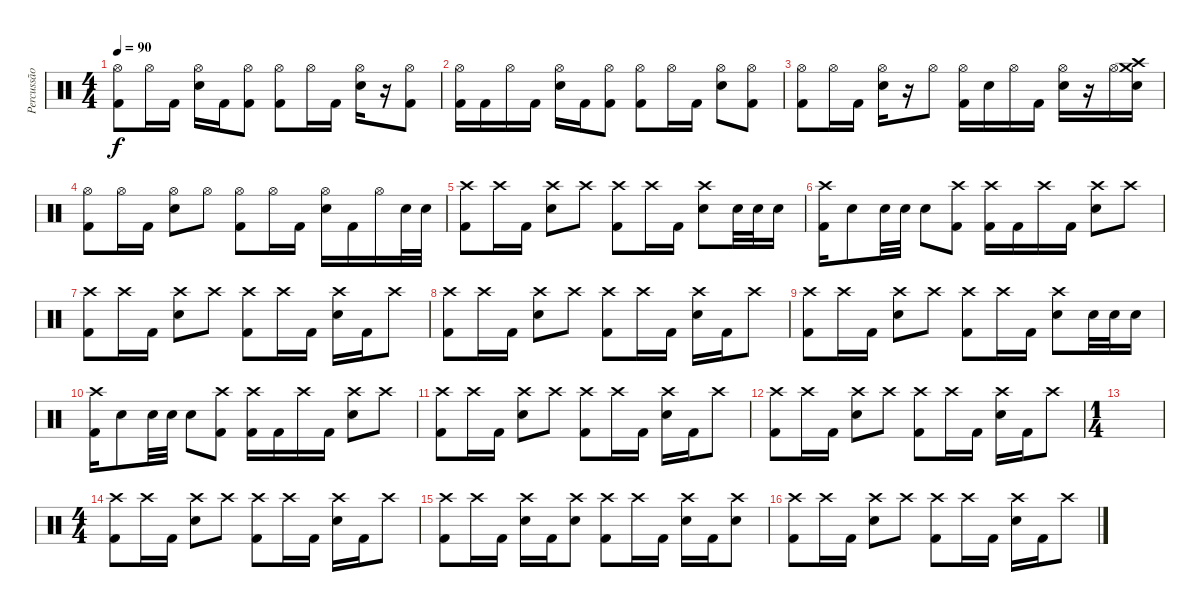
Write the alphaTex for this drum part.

\track ("Percussão" "Percussão") {instrument percussion}
\staff {score}
\articulation defaults
\ts (4 4)
\tempo 90
\clef neutral
\ks c
("Hi-Hat (open)" "Kick (hit) 2").8{dy f} "Hi-Hat (open)".16 "Kick (hit) 2".16 ("Hi-Hat (open)" "Electric Snare (hit)").16 "Kick (hit) 2".16 ("Hi-Hat (open)" "Kick (hit) 2").8 ("Hi-Hat (open)" "Kick (hit) 2").8 "Hi-Hat (open)".16 "Kick (hit) 2".16 ("Hi-Hat (open)" "Electric Snare (hit)").16 r.16 ("Hi-Hat (open)" "Kick (hit) 2").8 |
("Hi-Hat (open)" "Kick (hit) 2").16 "Kick (hit) 2".16 "Hi-Hat (open)".16 "Kick (hit) 2".16 ("Hi-Hat (open)" "Electric Snare (hit)").16 "Kick (hit) 2".16 ("Hi-Hat (open)" "Kick (hit) 2").8 ("Hi-Hat (open)" "Kick (hit) 2").8 "Hi-Hat (open)".16 "Kick (hit) 2".16 ("Hi-Hat (open)" "Electric Snare (hit)").8 ("Hi-Hat (open)" "Kick (hit) 2").8 |
("Hi-Hat (open)" "Kick (hit) 2").8 "Hi-Hat (open)".16 "Kick (hit) 2".16 ("Hi-Hat (open)" "Electric Snare (hit)").16 r.16 "Hi-Hat (open)".8 ("Hi-Hat (open)" "Kick (hit) 2").16 "Electric Snare (hit)".16 "Hi-Hat (open)".16 "Kick (hit) 2".16 ("Hi-Hat (open)" "Electric Snare (hit)").16 r.16 "Hi-Hat (open)".16 ("Crash medium (hit)" "Crash high (hit)" "Electric Snare (hit)").16 |
("Hi-Hat (open)" "Kick (hit) 2").8 "Hi-Hat (open)".16 "Kick (hit) 2".16 ("Hi-Hat (open)" "Electric Snare (hit)").8 "Hi-Hat (open)".8 ("Hi-Hat (open)" "Kick (hit) 2").8 "Hi-Hat (open)".16 "Kick (hit) 2".16 ("Hi-Hat (open)" "Electric Snare (hit)").16 "Kick (hit) 2".16 "Hi-Hat (open)".16 "Electric Snare (hit)".32 "Electric Snare (hit)".32 |
("Crash high (hit)" "Kick (hit) 2").8 "Crash high (hit)".16 "Kick (hit) 2".16 ("Crash high (hit)" "Electric Snare (hit)").8 "Crash high (hit)".8 ("Crash high (hit)" "Kick (hit) 2").8 "Crash high (hit)".16 "Kick (hit) 2".16 ("Crash high (hit)" "Electric Snare (hit)").8 "Electric Snare (hit)".32 "Electric Snare (hit)".32 "Electric Snare (hit)".16 |
("Crash high (hit)" "Kick (hit) 2").16 "Electric Snare (hit)".8 "Electric Snare (hit)".32 "Electric Snare (hit)".32 "Electric Snare (hit)".8 ("Crash high (hit)" "Kick (hit) 2").8 ("Crash high (hit)" "Kick (hit) 2").16 "Kick (hit) 2".16 "Crash high (hit)".16 "Kick (hit) 2".16 ("Crash high (hit)" "Electric Snare (hit)").8 "Crash high (hit)".8 |
("Crash high (hit)" "Kick (hit) 2").8 "Crash high (hit)".16 "Kick (hit) 2".16 ("Crash high (hit)" "Electric Snare (hit)").8 "Crash high (hit)".8 ("Crash high (hit)" "Kick (hit) 2").8 "Crash high (hit)".16 "Kick (hit) 2".16 ("Crash high (hit)" "Electric Snare (hit)").16 "Kick (hit) 2".16 "Crash high (hit)".8 |
("Crash high (hit)" "Kick (hit) 2").8 "Crash high (hit)".16 "Kick (hit) 2".16 ("Crash high (hit)" "Electric Snare (hit)").8 "Crash high (hit)".8 ("Crash high (hit)" "Kick (hit) 2").8 "Crash high (hit)".16 "Kick (hit) 2".16 ("Crash high (hit)" "Electric Snare (hit)").16 "Kick (hit) 2".16 "Crash high (hit)".8 |
("Crash high (hit)" "Kick (hit) 2").8 "Crash high (hit)".16 "Kick (hit) 2".16 ("Crash high (hit)" "Electric Snare (hit)").8 "Crash high (hit)".8 ("Crash high (hit)" "Kick (hit) 2").8 "Crash high (hit)".16 "Kick (hit) 2".16 ("Crash high (hit)" "Electric Snare (hit)").8 "Electric Snare (hit)".32 "Electric Snare (hit)".32 "Electric Snare (hit)".16 |
("Crash high (hit)" "Kick (hit) 2").16 "Electric Snare (hit)".8 "Electric Snare (hit)".32 "Electric Snare (hit)".32 "Electric Snare (hit)".8 ("Crash high (hit)" "Kick (hit) 2").8 ("Crash high (hit)" "Kick (hit) 2").16 "Kick (hit) 2".16 "Crash high (hit)".16 "Kick (hit) 2".16 ("Crash high (hit)" "Electric Snare (hit)").8 "Crash high (hit)".8 |
("Crash high (hit)" "Kick (hit) 2").8 "Crash high (hit)".16 "Kick (hit) 2".16 ("Crash high (hit)" "Electric Snare (hit)").8 "Crash high (hit)".8 ("Crash high (hit)" "Kick (hit) 2").8 "Crash high (hit)".16 "Kick (hit) 2".16 ("Crash high (hit)" "Electric Snare (hit)").16 "Kick (hit) 2".16 "Crash high (hit)".8 |
("Crash high (hit)" "Kick (hit) 2").8 "Crash high (hit)".16 "Kick (hit) 2".16 ("Crash high (hit)" "Electric Snare (hit)").8 "Crash high (hit)".8 ("Crash high (hit)" "Kick (hit) 2").8 "Crash high (hit)".16 "Kick (hit) 2".16 ("Crash high (hit)" "Electric Snare (hit)").16 "Kick (hit) 2".16 "Crash high (hit)".8 |
\ts (1 4)
|
\ts (4 4)
("Crash high (hit)" "Kick (hit) 2").8 "Crash high (hit)".16 "Kick (hit) 2".16 ("Crash high (hit)" "Electric Snare (hit)").8 "Crash high (hit)".8 ("Crash high (hit)" "Kick (hit) 2").8 "Crash high (hit)".16 "Kick (hit) 2".16 ("Crash high (hit)" "Electric Snare (hit)").16 "Kick (hit) 2".16 "Crash high (hit)".8 |
("Crash high (hit)" "Kick (hit) 2").8 "Crash high (hit)".16 "Kick (hit) 2".16 ("Crash high (hit)" "Electric Snare (hit)").16 "Kick (hit) 2".16 ("Crash high (hit)" "Electric Snare (hit)").8 ("Crash high (hit)" "Kick (hit) 2").8 "Crash high (hit)".16 "Kick (hit) 2".16 ("Crash high (hit)" "Electric Snare (hit)").16 "Kick (hit) 2".16 ("Crash high (hit)" "Electric Snare (hit)").8 |
("Crash high (hit)" "Kick (hit) 2").8 "Crash high (hit)".16 "Kick (hit) 2".16 ("Crash high (hit)" "Electric Snare (hit)").8 "Crash high (hit)".8 ("Crash high (hit)" "Kick (hit) 2").8 "Crash high (hit)".16 "Kick (hit) 2".16 ("Crash high (hit)" "Electric Snare (hit)").16 "Kick (hit) 2".16 "Crash high (hit)".8
